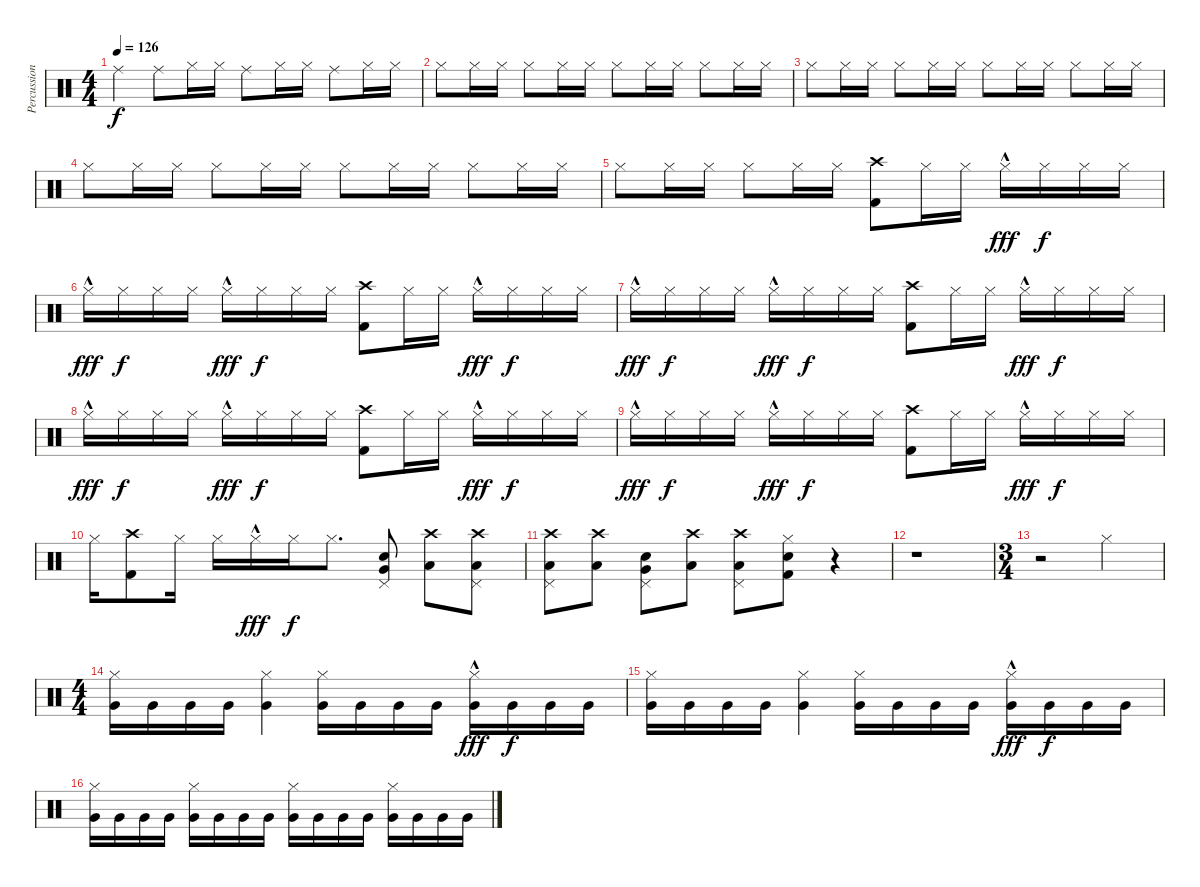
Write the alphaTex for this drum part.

\track ("Percussion" "Percussion") {instrument percussion}
\staff {score}
\articulation defaults
\ts (4 4)
\tempo 126
\clef neutral
\ks c "Ride (middle)".4{dy f} "Ride (middle)".8 "Hi-Hat (closed)".16 "Hi-Hat (closed)".16 "Ride (middle)".8 "Hi-Hat (closed)".16 "Hi-Hat (closed)".16 "Ride (middle)".8 "Hi-Hat (closed)".16 "Hi-Hat (closed)".16
|
"Hi-Hat (closed)".8 "Hi-Hat (closed)".16 "Hi-Hat (closed)".16 "Hi-Hat (closed)".8 "Hi-Hat (closed)".16 "Hi-Hat (closed)".16 "Hi-Hat (closed)".8 "Hi-Hat (closed)".16 "Hi-Hat (closed)".16 "Hi-Hat (closed)".8 "Hi-Hat (closed)".16 "Hi-Hat (closed)".16 |
"Hi-Hat (closed)".8 "Hi-Hat (closed)".16 "Hi-Hat (closed)".16 "Hi-Hat (closed)".8 "Hi-Hat (closed)".16 "Hi-Hat (closed)".16 "Hi-Hat (closed)".8 "Hi-Hat (closed)".16 "Hi-Hat (closed)".16 "Hi-Hat (closed)".8 "Hi-Hat (closed)".16 "Hi-Hat (closed)".16 |
"Hi-Hat (closed)".8 "Hi-Hat (closed)".16 "Hi-Hat (closed)".16 "Hi-Hat (closed)".8 "Hi-Hat (closed)".16 "Hi-Hat (closed)".16 "Hi-Hat (closed)".8 "Hi-Hat (closed)".16 "Hi-Hat (closed)".16 "Hi-Hat (closed)".8 "Hi-Hat (closed)".16 "Hi-Hat (closed)".16 |
"Hi-Hat (closed)".8 "Hi-Hat (closed)".16 "Hi-Hat (closed)".16 "Hi-Hat (closed)".8 "Hi-Hat (closed)".16 "Hi-Hat (closed)".16 ("Crash high (hit)" "Kick (hit) 2").8 "Hi-Hat (closed)".16 "Hi-Hat (closed)".16 "Hi-Hat (closed)"{hac}.16{dy fff} "Hi-Hat (closed)".16{dy f} "Hi-Hat (closed)".16 "Hi-Hat (closed)".16 |
"Hi-Hat (closed)"{hac}.16{dy fff} "Hi-Hat (closed)".16{dy f} "Hi-Hat (closed)".16 "Hi-Hat (closed)".16 "Hi-Hat (closed)"{hac}.16{dy fff} "Hi-Hat (closed)".16{dy f} "Hi-Hat (closed)".16 "Hi-Hat (closed)".16 ("Crash high (hit)" "Kick (hit) 2").8 "Hi-Hat (closed)".16 "Hi-Hat (closed)".16 "Hi-Hat (closed)"{hac}.16{dy fff} "Hi-Hat (closed)".16{dy f} "Hi-Hat (closed)".16 "Hi-Hat (closed)".16 |
"Hi-Hat (closed)"{hac}.16{dy fff} "Hi-Hat (closed)".16{dy f} "Hi-Hat (closed)".16 "Hi-Hat (closed)".16 "Hi-Hat (closed)"{hac}.16{dy fff} "Hi-Hat (closed)".16{dy f} "Hi-Hat (closed)".16 "Hi-Hat (closed)".16 ("Crash high (hit)" "Kick (hit) 2").8 "Hi-Hat (closed)".16 "Hi-Hat (closed)".16 "Hi-Hat (closed)"{hac}.16{dy fff} "Hi-Hat (closed)".16{dy f} "Hi-Hat (closed)".16 "Hi-Hat (closed)".16 |
"Hi-Hat (closed)"{hac}.16{dy fff} "Hi-Hat (closed)".16{dy f} "Hi-Hat (closed)".16 "Hi-Hat (closed)".16 "Hi-Hat (closed)"{hac}.16{dy fff} "Hi-Hat (closed)".16{dy f} "Hi-Hat (closed)".16 "Hi-Hat (closed)".16 ("Crash high (hit)" "Kick (hit) 2").8 "Hi-Hat (closed)".16 "Hi-Hat (closed)".16 "Hi-Hat (closed)"{hac}.16{dy fff} "Hi-Hat (closed)".16{dy f} "Hi-Hat (closed)".16 "Hi-Hat (closed)".16 |
"Hi-Hat (closed)"{hac}.16{dy fff} "Hi-Hat (closed)".16{dy f} "Hi-Hat (closed)".16 "Hi-Hat (closed)".16 "Hi-Hat (closed)"{hac}.16{dy fff} "Hi-Hat (closed)".16{dy f} "Hi-Hat (closed)".16 "Hi-Hat (closed)".16 ("Crash high (hit)" "Kick (hit) 2").8 "Hi-Hat (closed)".16 "Hi-Hat (closed)".16 "Hi-Hat (closed)"{hac}.16{dy fff} "Hi-Hat (closed)".16{dy f} "Hi-Hat (closed)".16 "Hi-Hat (closed)".16 |
"Hi-Hat (closed)".16 ("Crash high (hit)" "Kick (hit) 2").8 "Hi-Hat (closed)".16 "Hi-Hat (closed)".16 "Hi-Hat (closed)"{hac}.16{dy fff} "Hi-Hat (closed)".16{dy f} "Hi-Hat (closed)".8{d} ("Pedal Hi-Hat (hit)" "Snare (hit) 2" "Very Low Tom (hit)").8 ("Crash high (hit)" "Low Floor Tom (hit)").8 ("Pedal Hi-Hat (hit)" "Crash high (hit)" "Low Floor Tom (hit)").8 |
("Pedal Hi-Hat (hit)" "Crash high (hit)" "Low Floor Tom (hit)").8 ("Crash high (hit)" "Low Floor Tom (hit)").8 ("Pedal Hi-Hat (hit)" "Snare (hit) 2" "Very Low Tom (hit)").8 ("Crash high (hit)" "Low Floor Tom (hit)").8 ("Pedal Hi-Hat (hit)" "Crash high (hit)" "Low Floor Tom (hit)").8 ("Hi-Hat (closed)" "Kick (hit) 2" "Snare (hit) 2").8 r.4 |
r.1 |
\ts (3 4)
r.2 "Hi-Hat (closed)".4 |
\ts (4 4)
("Hi-Hat (closed)" "Very Low Tom (hit)").16 "Very Low Tom (hit)".16 "Very Low Tom (hit)".16 "Very Low Tom (hit)".16 ("Hi-Hat (closed)" "Very Low Tom (hit)").4 ("Hi-Hat (closed)" "Very Low Tom (hit)").16 "Very Low Tom (hit)".16 "Very Low Tom (hit)".16 "Very Low Tom (hit)".16 ("Hi-Hat (closed)" "Very Low Tom (hit)"{hac}).16{dy fff} "Very Low Tom (hit)".16{dy f} "Very Low Tom (hit)".16 "Very Low Tom (hit)".16 |
("Hi-Hat (closed)" "Very Low Tom (hit)").16 "Very Low Tom (hit)".16 "Very Low Tom (hit)".16 "Very Low Tom (hit)".16 ("Hi-Hat (closed)" "Very Low Tom (hit)").4 ("Hi-Hat (closed)" "Very Low Tom (hit)").16 "Very Low Tom (hit)".16 "Very Low Tom (hit)".16 "Very Low Tom (hit)".16 ("Hi-Hat (closed)" "Very Low Tom (hit)"{hac}).16{dy fff} "Very Low Tom (hit)".16{dy f} "Very Low Tom (hit)".16 "Very Low Tom (hit)".16 |
("Hi-Hat (closed)" "Very Low Tom (hit)").16 "Very Low Tom (hit)".16 "Very Low Tom (hit)".16 "Very Low Tom (hit)".16 ("Hi-Hat (closed)" "Very Low Tom (hit)").16 "Very Low Tom (hit)".16 "Very Low Tom (hit)".16 "Very Low Tom (hit)".16 ("Hi-Hat (closed)" "Very Low Tom (hit)").16 "Very Low Tom (hit)".16 "Very Low Tom (hit)".16 "Very Low Tom (hit)".16 ("Hi-Hat (closed)" "Very Low Tom (hit)").16 "Very Low Tom (hit)".16 "Very Low Tom (hit)".16 "Very Low Tom (hit)".16
